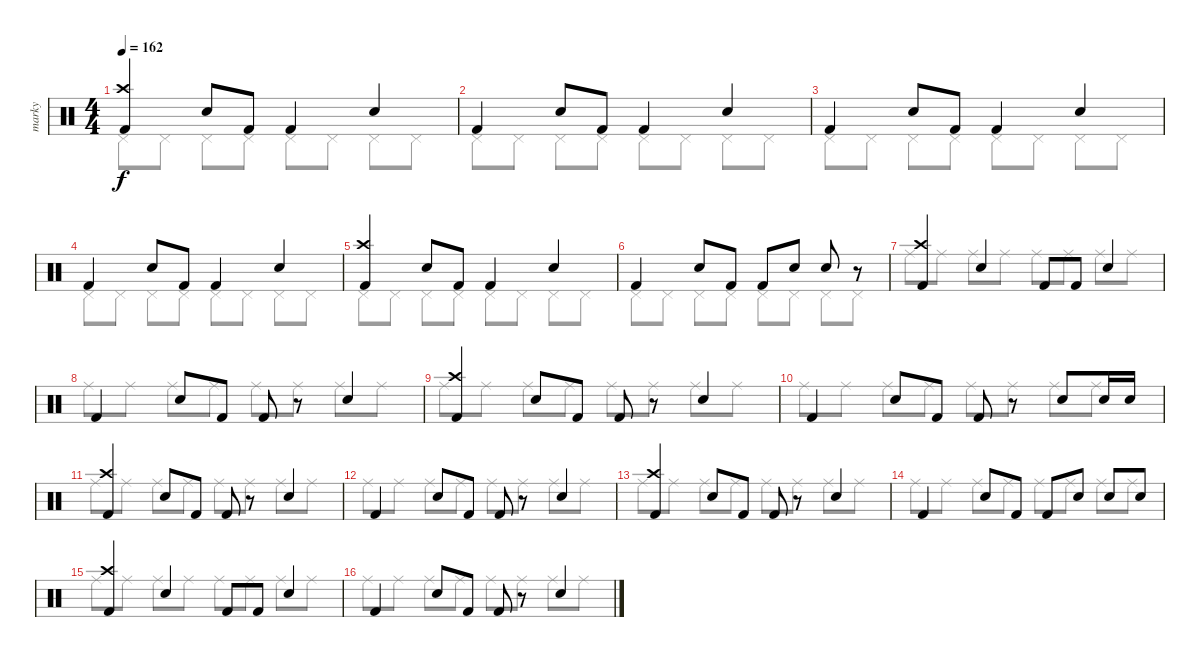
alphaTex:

\track ("marky" "marky") {instrument percussion}
\staff {score}
\articulation defaults
\voice
\ts (4 4)
\tempo 162
\clef neutral
\ks c
("Kick (hit) 2" "Crash high (hit)").4{dy f} "Electric Snare (hit)".8 "Kick (hit) 2".8 "Kick (hit) 2".4 "Electric Snare (hit)".4 |
"Kick (hit) 2".4 "Electric Snare (hit)".8 "Kick (hit) 2".8 "Kick (hit) 2".4 "Electric Snare (hit)".4 |
"Kick (hit) 2".4 "Electric Snare (hit)".8 "Kick (hit) 2".8 "Kick (hit) 2".4 "Electric Snare (hit)".4 |
"Kick (hit) 2".4 "Electric Snare (hit)".8 "Kick (hit) 2".8 "Kick (hit) 2".4 "Electric Snare (hit)".4 |
("Kick (hit) 2" "Crash high (hit)").4 "Electric Snare (hit)".8 "Kick (hit) 2".8 "Kick (hit) 2".4 "Electric Snare (hit)".4 |
"Kick (hit) 2".4 "Electric Snare (hit)".8 "Kick (hit) 2".8 "Kick (hit) 2".8 "Electric Snare (hit)".8 "Electric Snare (hit)".8 r.8 |
("Kick (hit) 2" "Crash high (hit)").4 "Electric Snare (hit)".4 "Kick (hit) 2".8 "Kick (hit) 2".8 "Electric Snare (hit)".4 |
"Kick (hit) 2".4 "Electric Snare (hit)".8 "Kick (hit) 2".8 "Kick (hit) 2".8 r.8 "Electric Snare (hit)".4 |
("Kick (hit) 2" "Crash high (hit)").4 "Electric Snare (hit)".8 "Kick (hit) 2".8 "Kick (hit) 2".8 r.8 "Electric Snare (hit)".4 |
"Kick (hit) 2".4 "Electric Snare (hit)".8 "Kick (hit) 2".8 "Kick (hit) 2".8 r.8 "Electric Snare (hit)".8 "Electric Snare (hit)".16 "Electric Snare (hit)".16 |
("Kick (hit) 2" "Crash high (hit)").4 "Electric Snare (hit)".8 "Kick (hit) 2".8 "Kick (hit) 2".8 r.8 "Electric Snare (hit)".4 |
"Kick (hit) 2".4 "Electric Snare (hit)".8 "Kick (hit) 2".8 "Kick (hit) 2".8 r.8 "Electric Snare (hit)".4 |
("Kick (hit) 2" "Crash high (hit)").4 "Electric Snare (hit)".8 "Kick (hit) 2".8 "Kick (hit) 2".8 r.8 "Electric Snare (hit)".4 |
"Kick (hit) 2".4 "Electric Snare (hit)".8 "Kick (hit) 2".8 "Kick (hit) 2".8 "Electric Snare (hit)".8 "Electric Snare (hit)".8 "Electric Snare (hit)".8 |
("Kick (hit) 2" "Crash high (hit)").4 "Electric Snare (hit)".4 "Kick (hit) 2".8 "Kick (hit) 2".8 "Electric Snare (hit)".4 |
"Kick (hit) 2".4 "Electric Snare (hit)".8 "Kick (hit) 2".8 "Kick (hit) 2".8 r.8 "Electric Snare (hit)".4
\voice
\clef neutral
\ottava regular
\simile none
\ks c "Pedal Hi-Hat (hit)".8{dy f} "Pedal Hi-Hat (hit)".8 "Pedal Hi-Hat (hit)".8 "Pedal Hi-Hat (hit)".8 "Pedal Hi-Hat (hit)".8 "Pedal Hi-Hat (hit)".8 "Pedal Hi-Hat (hit)".8 "Pedal Hi-Hat (hit)".8
|
"Pedal Hi-Hat (hit)".8 "Pedal Hi-Hat (hit)".8 "Pedal Hi-Hat (hit)".8 "Pedal Hi-Hat (hit)".8 "Pedal Hi-Hat (hit)".8 "Pedal Hi-Hat (hit)".8 "Pedal Hi-Hat (hit)".8 "Pedal Hi-Hat (hit)".8 |
"Pedal Hi-Hat (hit)".8 "Pedal Hi-Hat (hit)".8 "Pedal Hi-Hat (hit)".8 "Pedal Hi-Hat (hit)".8 "Pedal Hi-Hat (hit)".8 "Pedal Hi-Hat (hit)".8 "Pedal Hi-Hat (hit)".8 "Pedal Hi-Hat (hit)".8 |
"Pedal Hi-Hat (hit)".8 "Pedal Hi-Hat (hit)".8 "Pedal Hi-Hat (hit)".8 "Pedal Hi-Hat (hit)".8 "Pedal Hi-Hat (hit)".8 "Pedal Hi-Hat (hit)".8 "Pedal Hi-Hat (hit)".8 "Pedal Hi-Hat (hit)".8 |
"Pedal Hi-Hat (hit)".8 "Pedal Hi-Hat (hit)".8 "Pedal Hi-Hat (hit)".8 "Pedal Hi-Hat (hit)".8 "Pedal Hi-Hat (hit)".8 "Pedal Hi-Hat (hit)".8 "Pedal Hi-Hat (hit)".8 "Pedal Hi-Hat (hit)".8 |
"Pedal Hi-Hat (hit)".8 "Pedal Hi-Hat (hit)".8 "Pedal Hi-Hat (hit)".8 "Pedal Hi-Hat (hit)".8 "Pedal Hi-Hat (hit)".8 "Pedal Hi-Hat (hit)".8 "Pedal Hi-Hat (hit)".8 "Pedal Hi-Hat (hit)".8 |
"Ride (middle)".8 "Ride (middle)".8 "Ride (middle)".8 "Ride (middle)".8 "Ride (middle)".8 "Ride (middle)".8 "Ride (middle)".8 "Ride (middle)".8 |
"Ride (middle)".8 "Ride (middle)".8 "Ride (middle)".8 "Ride (middle)".8 "Ride (middle)".8 "Ride (middle)".8 "Ride (middle)".8 "Ride (middle)".8 |
"Ride (middle)".8 "Ride (middle)".8 "Ride (middle)".8 "Ride (middle)".8 "Ride (middle)".8 "Ride (middle)".8 "Ride (middle)".8 "Ride (middle)".8 |
"Ride (middle)".8 "Ride (middle)".8 "Ride (middle)".8 "Ride (middle)".8 "Ride (middle)".8 "Ride (middle)".8 "Ride (middle)".8 "Ride (middle)".8 |
"Ride (middle)".8 "Ride (middle)".8 "Ride (middle)".8 "Ride (middle)".8 "Ride (middle)".8 "Ride (middle)".8 "Ride (middle)".8 "Ride (middle)".8 |
"Ride (middle)".8 "Ride (middle)".8 "Ride (middle)".8 "Ride (middle)".8 "Ride (middle)".8 "Ride (middle)".8 "Ride (middle)".8 "Ride (middle)".8 |
"Ride (middle)".8 "Ride (middle)".8 "Ride (middle)".8 "Ride (middle)".8 "Ride (middle)".8 "Ride (middle)".8 "Ride (middle)".8 "Ride (middle)".8 |
"Ride (middle)".8 "Ride (middle)".8 "Ride (middle)".8 "Ride (middle)".8 "Ride (middle)".8 "Ride (middle)".8 "Ride (middle)".8 "Ride (middle)".8 |
"Ride (middle)".8 "Ride (middle)".8 "Ride (middle)".8 "Ride (middle)".8 "Ride (middle)".8 "Ride (middle)".8 "Ride (middle)".8 "Ride (middle)".8 |
"Ride (middle)".8 "Ride (middle)".8 "Ride (middle)".8 "Ride (middle)".8 "Ride (middle)".8 "Ride (middle)".8 "Ride (middle)".8 "Ride (middle)".8
